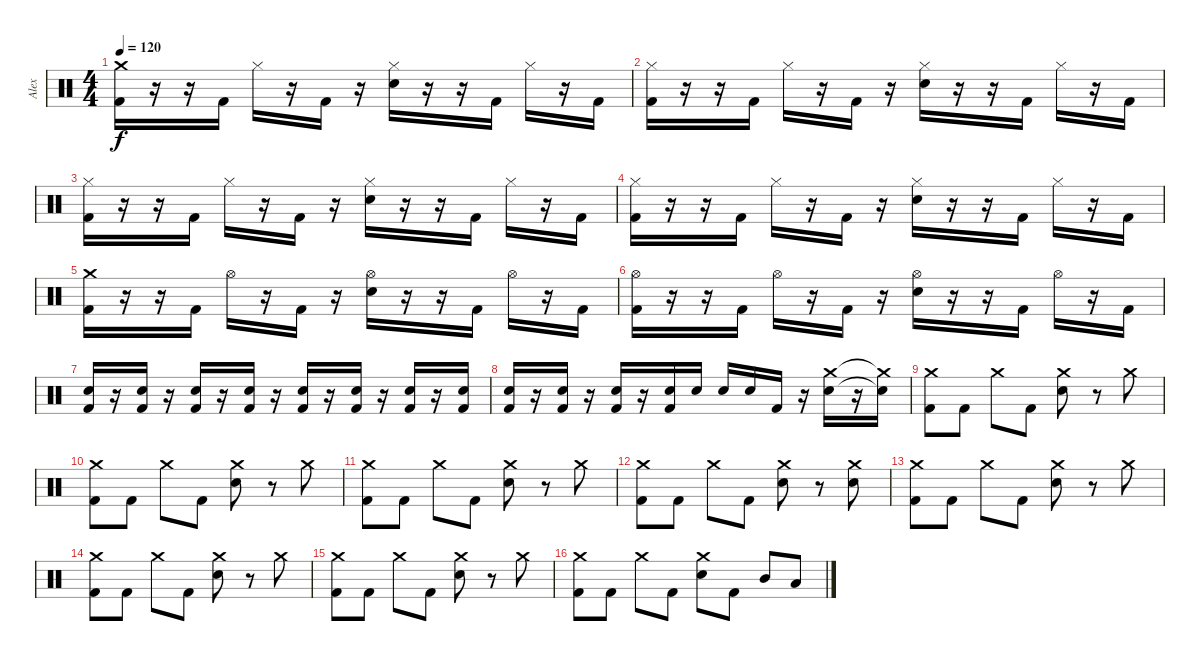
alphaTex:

\track ("Alex" "Alex") {instrument percussion}
\staff {score}
\articulation defaults
\ts (4 4)
\tempo 120
\clef neutral
\ks c
("Crash medium (hit)" "Kick (hit) 2").16{dy f} r.16 r.16 "Kick (hit) 2".16 "Hi-Hat (closed)".16 r.16 "Kick (hit) 2".16 r.16 ("Hi-Hat (closed)" "Snare (hit) 2").16 r.16 r.16 "Kick (hit) 2".16 "Hi-Hat (closed)".16 r.16 "Kick (hit) 2".16 |
("Hi-Hat (closed)" "Kick (hit) 2").16 r.16 r.16 "Kick (hit) 2".16 "Hi-Hat (closed)".16 r.16 "Kick (hit) 2".16 r.16 ("Hi-Hat (closed)" "Snare (hit) 2").16 r.16 r.16 "Kick (hit) 2".16 "Hi-Hat (closed)".16 r.16 "Kick (hit) 2".16 |
("Hi-Hat (closed)" "Kick (hit) 2").16 r.16 r.16 "Kick (hit) 2".16 "Hi-Hat (closed)".16 r.16 "Kick (hit) 2".16 r.16 ("Hi-Hat (closed)" "Snare (hit) 2").16 r.16 r.16 "Kick (hit) 2".16 "Hi-Hat (closed)".16 r.16 "Kick (hit) 2".16 |
("Hi-Hat (closed)" "Kick (hit) 2").16 r.16 r.16 "Kick (hit) 2".16 "Hi-Hat (closed)".16 r.16 "Kick (hit) 2".16 r.16 ("Hi-Hat (closed)" "Snare (hit) 2").16 r.16 r.16 "Kick (hit) 2".16 "Hi-Hat (closed)".16 r.16 "Kick (hit) 2".16 |
("Crash medium (hit)" "Kick (hit) 2").16 r.16 r.16 "Kick (hit) 2".16 "Hi-Hat (open)".16 r.16 "Kick (hit) 2".16 r.16 ("Hi-Hat (open)" "Snare (hit) 2").16 r.16 r.16 "Kick (hit) 2".16 "Hi-Hat (open)".16 r.16 "Kick (hit) 2".16 |
("Hi-Hat (open)" "Kick (hit) 2").16 r.16 r.16 "Kick (hit) 2".16 "Hi-Hat (open)".16 r.16 "Kick (hit) 2".16 r.16 ("Hi-Hat (open)" "Snare (hit) 2").16 r.16 r.16 "Kick (hit) 2".16 "Hi-Hat (open)".16 r.16 "Kick (hit) 2".16 |
("Snare (hit) 2" "Kick (hit) 2").16 r.16 ("Snare (hit) 2" "Kick (hit) 2").16 r.16 ("Snare (hit) 2" "Kick (hit) 2").16 r.16 ("Snare (hit) 2" "Kick (hit) 2").16 r.16 ("Snare (hit) 2" "Kick (hit) 2").16 r.16 ("Snare (hit) 2" "Kick (hit) 2").16 r.16 ("Snare (hit) 2" "Kick (hit) 2").16 r.16 ("Snare (hit) 2" "Kick (hit) 2").16 |
("Snare (hit) 2" "Kick (hit) 2").16 r.16 ("Snare (hit) 2" "Kick (hit) 2").16 r.16 ("Snare (hit) 2" "Kick (hit) 2").16 r.16 ("Snare (hit) 2" "Kick (hit) 2").16 "Snare (hit) 2".16 "Snare (hit) 2".16 "Snare (hit) 2".16 "Kick (hit) 2".16 r.16 ("Crash medium (hit)" "Snare (hit) 2").16 r.16 ("Crash medium (hit)"{t} "Snare (hit) 2"{t}).16 |
("Crash medium (hit)" "Kick (hit) 2").8 "Kick (hit) 2".8 "Crash medium (hit)".8 "Kick (hit) 2".8 ("Crash medium (hit)" "Snare (hit) 2").8 r.8 "Crash medium (hit)".8 |
("Crash medium (hit)" "Kick (hit) 2").8 "Kick (hit) 2".8 "Crash medium (hit)".8 "Kick (hit) 2".8 ("Crash medium (hit)" "Snare (hit) 2").8 r.8 "Crash medium (hit)".8 |
("Crash medium (hit)" "Kick (hit) 2").8 "Kick (hit) 2".8 "Crash medium (hit)".8 "Kick (hit) 2".8 ("Crash medium (hit)" "Snare (hit) 2").8 r.8 "Crash medium (hit)".8 |
("Crash medium (hit)" "Kick (hit) 2").8 "Kick (hit) 2".8 "Crash medium (hit)".8 "Kick (hit) 2".8 ("Crash medium (hit)" "Snare (hit) 2").8 r.8 ("Crash medium (hit)" "Snare (hit) 2").8 |
("Crash medium (hit)" "Kick (hit) 2").8 "Kick (hit) 2".8 "Crash medium (hit)".8 "Kick (hit) 2".8 ("Crash medium (hit)" "Snare (hit) 2").8 r.8 "Crash medium (hit)".8 |
("Crash medium (hit)" "Kick (hit) 2").8 "Kick (hit) 2".8 "Crash medium (hit)".8 "Kick (hit) 2".8 ("Crash medium (hit)" "Snare (hit) 2").8 r.8 "Crash medium (hit)".8 |
("Crash medium (hit)" "Kick (hit) 2").8 "Kick (hit) 2".8 "Crash medium (hit)".8 "Kick (hit) 2".8 ("Crash medium (hit)" "Snare (hit) 2").8 r.8 "Crash medium (hit)".8 |
("Crash medium (hit)" "Kick (hit) 2").8 "Kick (hit) 2".8 "Crash medium (hit)".8 "Kick (hit) 2".8 ("Crash medium (hit)" "Snare (hit) 2").8 "Kick (hit) 2".8 "Mid Tom (hit)".8 "Low Tom (hit)".8
